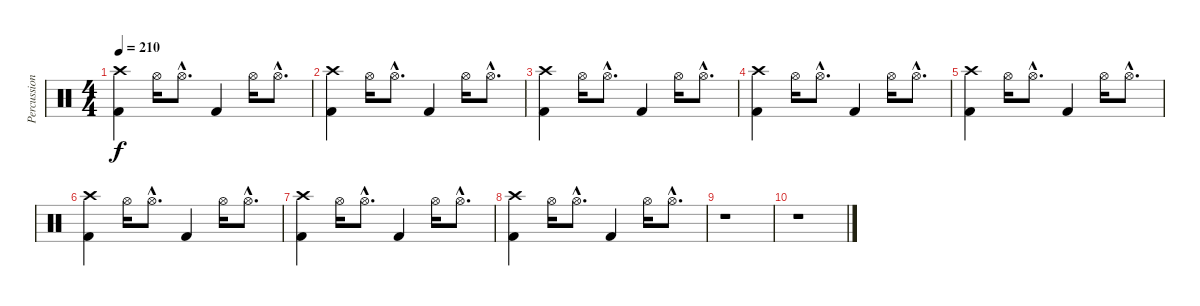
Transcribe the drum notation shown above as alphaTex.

\track ("Percussions" "Percussion") {instrument percussion}
\staff {score}
\articulation defaults
\ts (4 4)
\section ("" "")
\tempo 210
\clef neutral
\ks c
("Crash high (hit)" "Kick (hit) 2").4{dy f} "Hi-Hat (open)".16 "Hi-Hat (open)"{hac}.8{d} "Kick (hit) 2".4 "Hi-Hat (open)".16 "Hi-Hat (open)"{hac}.8{d} |
("Crash high (hit)" "Kick (hit) 2").4 "Hi-Hat (open)".16 "Hi-Hat (open)"{hac}.8{d} "Kick (hit) 2".4 "Hi-Hat (open)".16 "Hi-Hat (open)"{hac}.8{d} |
("Crash high (hit)" "Kick (hit) 2").4 "Hi-Hat (open)".16 "Hi-Hat (open)"{hac}.8{d} "Kick (hit) 2".4 "Hi-Hat (open)".16 "Hi-Hat (open)"{hac}.8{d} |
("Crash high (hit)" "Kick (hit) 2").4 "Hi-Hat (open)".16 "Hi-Hat (open)"{hac}.8{d} "Kick (hit) 2".4 "Hi-Hat (open)".16 "Hi-Hat (open)"{hac}.8{d} |
("Crash high (hit)" "Kick (hit) 2").4 "Hi-Hat (open)".16 "Hi-Hat (open)"{hac}.8{d} "Kick (hit) 2".4 "Hi-Hat (open)".16 "Hi-Hat (open)"{hac}.8{d} |
("Crash high (hit)" "Kick (hit) 2").4 "Hi-Hat (open)".16 "Hi-Hat (open)"{hac}.8{d} "Kick (hit) 2".4 "Hi-Hat (open)".16 "Hi-Hat (open)"{hac}.8{d} |
("Crash high (hit)" "Kick (hit) 2").4 "Hi-Hat (open)".16 "Hi-Hat (open)"{hac}.8{d} "Kick (hit) 2".4 "Hi-Hat (open)".16 "Hi-Hat (open)"{hac}.8{d} |
("Crash high (hit)" "Kick (hit) 2").4 "Hi-Hat (open)".16 "Hi-Hat (open)"{hac}.8{d} "Kick (hit) 2".4 "Hi-Hat (open)".16 "Hi-Hat (open)"{hac}.8{d} |
r.1 |
r.1
